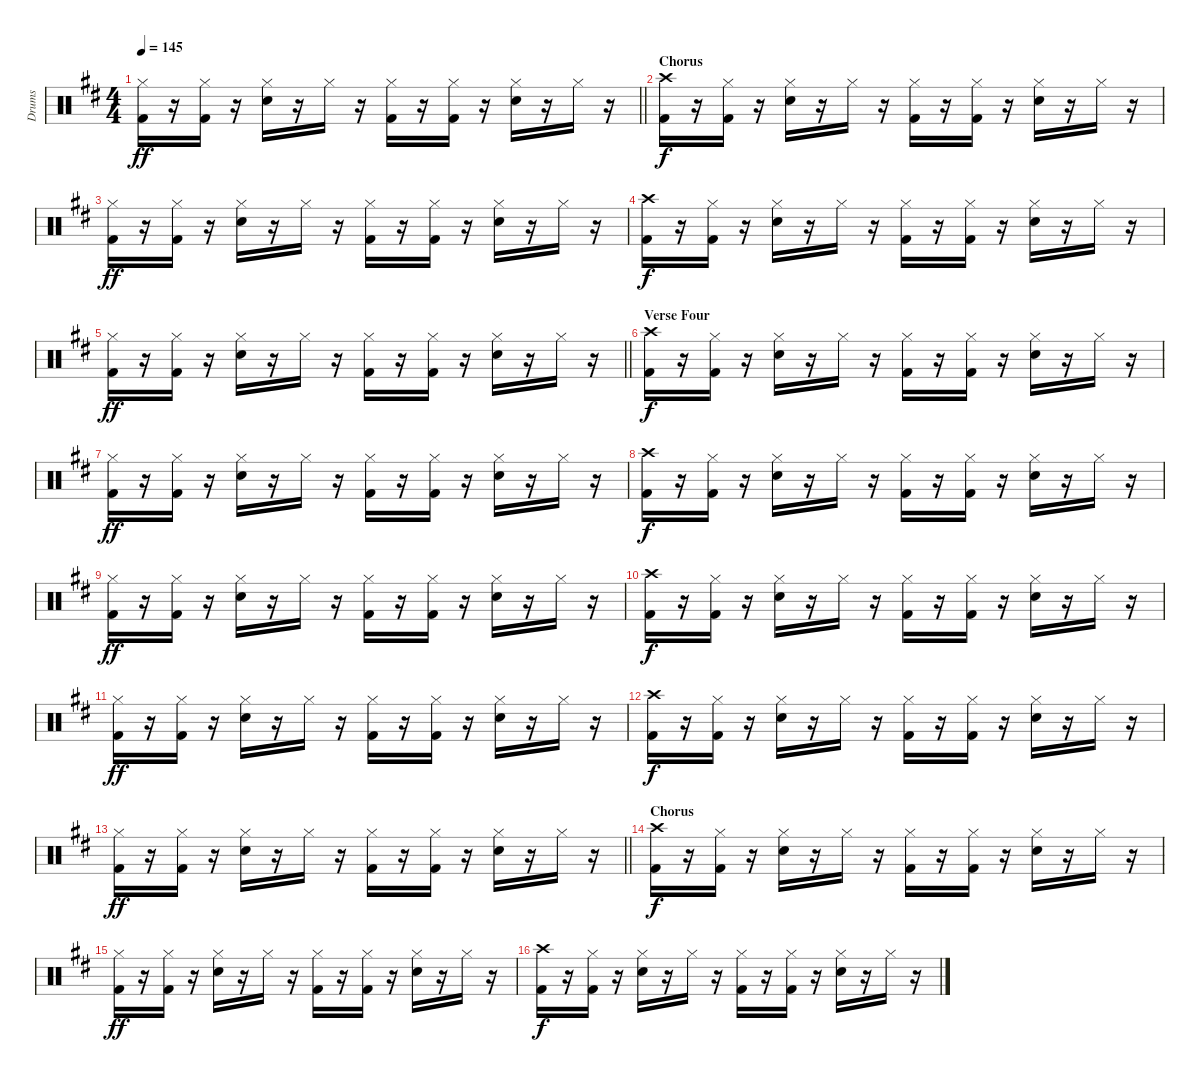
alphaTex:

\track ("Drums" "Drums") {instrument percussion}
\staff {score}
\articulation defaults
\ts (4 4)
\tempo 145
\clef neutral
\barLineRight lightlight
\ks d
("Hi-Hat (closed)" "Kick (hit) 2").16{dy ff} r.16 ("Hi-Hat (closed)" "Kick (hit) 2").16 r.16 ("Hi-Hat (closed)" "Snare (hit) 2").16 r.16 "Hi-Hat (closed)".16 r.16 ("Hi-Hat (closed)" "Kick (hit) 2").16 r.16 ("Hi-Hat (closed)" "Kick (hit) 2").16 r.16 ("Hi-Hat (closed)" "Snare (hit) 2").16 r.16 "Hi-Hat (closed)".16 r.16 |
\section ("" "Chorus")
("Crash high (hit)" "Kick (hit) 2").16{dy f} r.16 ("Hi-Hat (closed)" "Kick (hit) 2").16 r.16 ("Hi-Hat (closed)" "Snare (hit) 2").16 r.16 "Hi-Hat (closed)".16 r.16 ("Hi-Hat (closed)" "Kick (hit) 2").16 r.16 ("Hi-Hat (closed)" "Kick (hit) 2").16 r.16 ("Hi-Hat (closed)" "Snare (hit) 2").16 r.16 "Hi-Hat (closed)".16 r.16 |
("Hi-Hat (closed)" "Kick (hit) 2").16{dy ff} r.16 ("Hi-Hat (closed)" "Kick (hit) 2").16 r.16 ("Hi-Hat (closed)" "Snare (hit) 2").16 r.16 "Hi-Hat (closed)".16 r.16 ("Hi-Hat (closed)" "Kick (hit) 2").16 r.16 ("Hi-Hat (closed)" "Kick (hit) 2").16 r.16 ("Hi-Hat (closed)" "Snare (hit) 2").16 r.16 "Hi-Hat (closed)".16 r.16 |
("Crash high (hit)" "Kick (hit) 2").16{dy f} r.16 ("Hi-Hat (closed)" "Kick (hit) 2").16 r.16 ("Hi-Hat (closed)" "Snare (hit) 2").16 r.16 "Hi-Hat (closed)".16 r.16 ("Hi-Hat (closed)" "Kick (hit) 2").16 r.16 ("Hi-Hat (closed)" "Kick (hit) 2").16 r.16 ("Hi-Hat (closed)" "Snare (hit) 2").16 r.16 "Hi-Hat (closed)".16 r.16 |
\barLineRight lightlight
("Hi-Hat (closed)" "Kick (hit) 2").16{dy ff} r.16 ("Hi-Hat (closed)" "Kick (hit) 2").16 r.16 ("Hi-Hat (closed)" "Snare (hit) 2").16 r.16 "Hi-Hat (closed)".16 r.16 ("Hi-Hat (closed)" "Kick (hit) 2").16 r.16 ("Hi-Hat (closed)" "Kick (hit) 2").16 r.16 ("Hi-Hat (closed)" "Snare (hit) 2").16 r.16 "Hi-Hat (closed)".16 r.16 |
\section ("" "Verse Four")
("Crash high (hit)" "Kick (hit) 2").16{dy f} r.16 ("Hi-Hat (closed)" "Kick (hit) 2").16 r.16 ("Hi-Hat (closed)" "Snare (hit) 2").16 r.16 "Hi-Hat (closed)".16 r.16 ("Hi-Hat (closed)" "Kick (hit) 2").16 r.16 ("Hi-Hat (closed)" "Kick (hit) 2").16 r.16 ("Hi-Hat (closed)" "Snare (hit) 2").16 r.16 "Hi-Hat (closed)".16 r.16 |
("Hi-Hat (closed)" "Kick (hit) 2").16{dy ff} r.16 ("Hi-Hat (closed)" "Kick (hit) 2").16 r.16 ("Hi-Hat (closed)" "Snare (hit) 2").16 r.16 "Hi-Hat (closed)".16 r.16 ("Hi-Hat (closed)" "Kick (hit) 2").16 r.16 ("Hi-Hat (closed)" "Kick (hit) 2").16 r.16 ("Hi-Hat (closed)" "Snare (hit) 2").16 r.16 "Hi-Hat (closed)".16 r.16 |
("Crash high (hit)" "Kick (hit) 2").16{dy f} r.16 ("Hi-Hat (closed)" "Kick (hit) 2").16 r.16 ("Hi-Hat (closed)" "Snare (hit) 2").16 r.16 "Hi-Hat (closed)".16 r.16 ("Hi-Hat (closed)" "Kick (hit) 2").16 r.16 ("Hi-Hat (closed)" "Kick (hit) 2").16 r.16 ("Hi-Hat (closed)" "Snare (hit) 2").16 r.16 "Hi-Hat (closed)".16 r.16 |
("Hi-Hat (closed)" "Kick (hit) 2").16{dy ff} r.16 ("Hi-Hat (closed)" "Kick (hit) 2").16 r.16 ("Hi-Hat (closed)" "Snare (hit) 2").16 r.16 "Hi-Hat (closed)".16 r.16 ("Hi-Hat (closed)" "Kick (hit) 2").16 r.16 ("Hi-Hat (closed)" "Kick (hit) 2").16 r.16 ("Hi-Hat (closed)" "Snare (hit) 2").16 r.16 "Hi-Hat (closed)".16 r.16 |
("Crash high (hit)" "Kick (hit) 2").16{dy f} r.16 ("Hi-Hat (closed)" "Kick (hit) 2").16 r.16 ("Hi-Hat (closed)" "Snare (hit) 2").16 r.16 "Hi-Hat (closed)".16 r.16 ("Hi-Hat (closed)" "Kick (hit) 2").16 r.16 ("Hi-Hat (closed)" "Kick (hit) 2").16 r.16 ("Hi-Hat (closed)" "Snare (hit) 2").16 r.16 "Hi-Hat (closed)".16 r.16 |
("Hi-Hat (closed)" "Kick (hit) 2").16{dy ff} r.16 ("Hi-Hat (closed)" "Kick (hit) 2").16 r.16 ("Hi-Hat (closed)" "Snare (hit) 2").16 r.16 "Hi-Hat (closed)".16 r.16 ("Hi-Hat (closed)" "Kick (hit) 2").16 r.16 ("Hi-Hat (closed)" "Kick (hit) 2").16 r.16 ("Hi-Hat (closed)" "Snare (hit) 2").16 r.16 "Hi-Hat (closed)".16 r.16 |
("Crash high (hit)" "Kick (hit) 2").16{dy f} r.16 ("Hi-Hat (closed)" "Kick (hit) 2").16 r.16 ("Hi-Hat (closed)" "Snare (hit) 2").16 r.16 "Hi-Hat (closed)".16 r.16 ("Hi-Hat (closed)" "Kick (hit) 2").16 r.16 ("Hi-Hat (closed)" "Kick (hit) 2").16 r.16 ("Hi-Hat (closed)" "Snare (hit) 2").16 r.16 "Hi-Hat (closed)".16 r.16 |
\barLineRight lightlight
("Hi-Hat (closed)" "Kick (hit) 2").16{dy ff} r.16 ("Hi-Hat (closed)" "Kick (hit) 2").16 r.16 ("Hi-Hat (closed)" "Snare (hit) 2").16 r.16 "Hi-Hat (closed)".16 r.16 ("Hi-Hat (closed)" "Kick (hit) 2").16 r.16 ("Hi-Hat (closed)" "Kick (hit) 2").16 r.16 ("Hi-Hat (closed)" "Snare (hit) 2").16 r.16 "Hi-Hat (closed)".16 r.16 |
\section ("" "Chorus")
("Crash high (hit)" "Kick (hit) 2").16{dy f} r.16 ("Hi-Hat (closed)" "Kick (hit) 2").16 r.16 ("Hi-Hat (closed)" "Snare (hit) 2").16 r.16 "Hi-Hat (closed)".16 r.16 ("Hi-Hat (closed)" "Kick (hit) 2").16 r.16 ("Hi-Hat (closed)" "Kick (hit) 2").16 r.16 ("Hi-Hat (closed)" "Snare (hit) 2").16 r.16 "Hi-Hat (closed)".16 r.16 |
("Hi-Hat (closed)" "Kick (hit) 2").16{dy ff} r.16 ("Hi-Hat (closed)" "Kick (hit) 2").16 r.16 ("Hi-Hat (closed)" "Snare (hit) 2").16 r.16 "Hi-Hat (closed)".16 r.16 ("Hi-Hat (closed)" "Kick (hit) 2").16 r.16 ("Hi-Hat (closed)" "Kick (hit) 2").16 r.16 ("Hi-Hat (closed)" "Snare (hit) 2").16 r.16 "Hi-Hat (closed)".16 r.16 |
("Crash high (hit)" "Kick (hit) 2").16{dy f} r.16 ("Hi-Hat (closed)" "Kick (hit) 2").16 r.16 ("Hi-Hat (closed)" "Snare (hit) 2").16 r.16 "Hi-Hat (closed)".16 r.16 ("Hi-Hat (closed)" "Kick (hit) 2").16 r.16 ("Hi-Hat (closed)" "Kick (hit) 2").16 r.16 ("Hi-Hat (closed)" "Snare (hit) 2").16 r.16 "Hi-Hat (closed)".16 r.16
